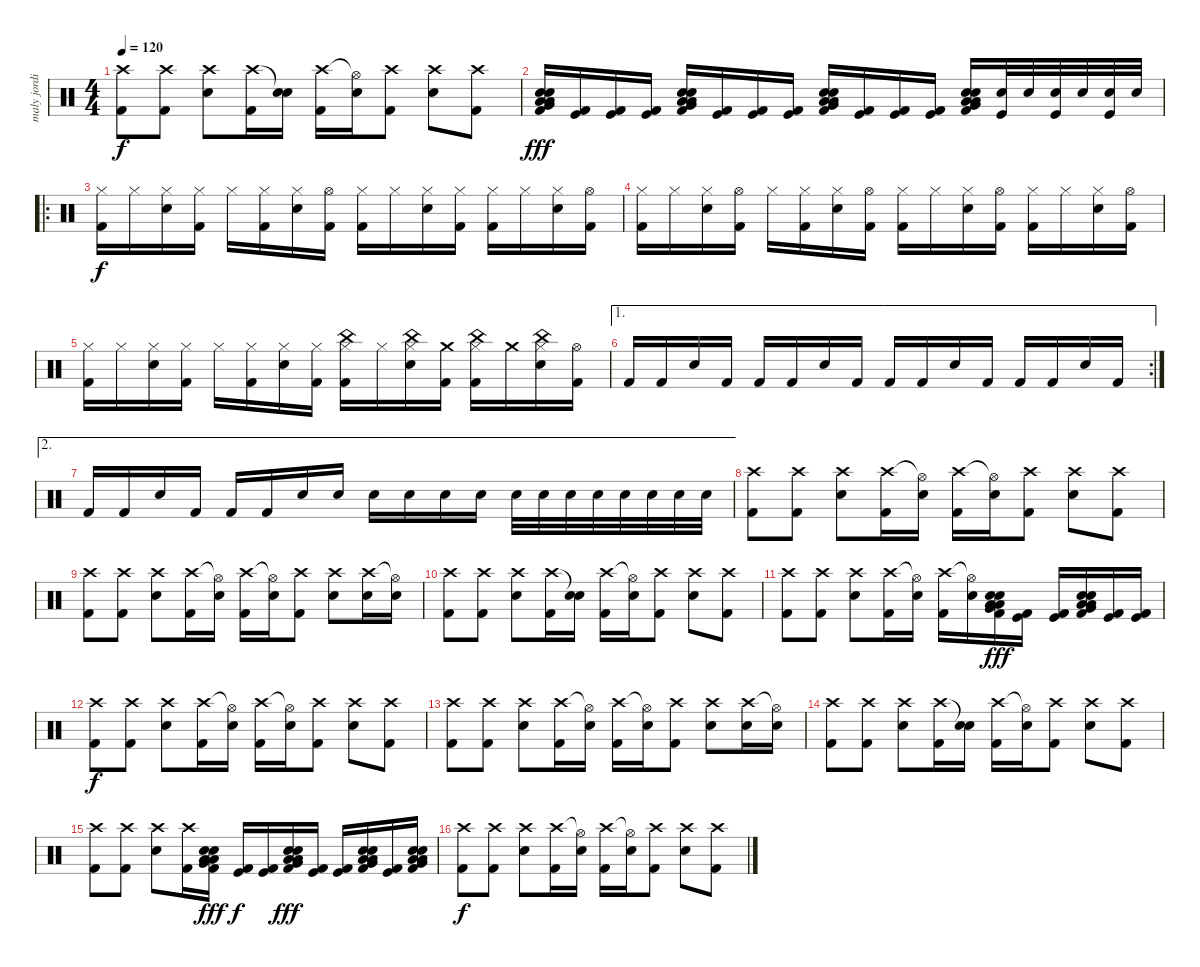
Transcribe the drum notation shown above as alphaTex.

\track ("maly jordison" "maly jordi") {instrument percussion}
\staff {score}
\articulation defaults
\ts (4 4)
\tempo 120
\clef neutral
\ks c
("Crash high (hit)" "Kick (hit) 2").8{dy f} ("Crash high (hit)" "Kick (hit) 2").8 ("Crash high (hit)" "Electric Snare (hit)").8 ("Crash high (hit)" "Kick (hit) 2").16 ("Snare (hit)"{t} "Electric Snare (hit)").16 ("Crash high (hit)" "Kick (hit) 2").16 ("Hi-Hat (open)"{t} "Electric Snare (hit)").16 ("Crash high (hit)" "Kick (hit) 2").8 ("Crash high (hit)" "Electric Snare (hit)").8 ("Crash high (hit)" "Kick (hit) 2").8 |
("Kick (hit) 2" "Very Low Tom (hit)" "Low Floor Tom (hit)" "Low Floor Tom (hit)" "Electric Snare (hit)" "Electric Snare (hit)").16{dy fff} ("Kick (hit)" "Kick (hit) 2").16 ("Kick (hit)" "Kick (hit) 2").16 ("Kick (hit)" "Kick (hit) 2").16 ("Kick (hit) 2" "Very Low Tom (hit)" "Low Floor Tom (hit)" "Low Floor Tom (hit)" "Electric Snare (hit)" "Electric Snare (hit)").16 ("Kick (hit)" "Kick (hit) 2").16 ("Kick (hit)" "Kick (hit) 2").16 ("Kick (hit)" "Kick (hit) 2").16 ("Kick (hit) 2" "Very Low Tom (hit)" "Low Floor Tom (hit)" "Low Floor Tom (hit)" "Electric Snare (hit)" "Electric Snare (hit)").16 ("Kick (hit)" "Kick (hit) 2").16 ("Kick (hit)" "Kick (hit) 2").16 ("Kick (hit)" "Kick (hit) 2").16 ("Kick (hit) 2" "Very Low Tom (hit)" "Low Floor Tom (hit)" "Low Floor Tom (hit)" "Electric Snare (hit)" "Electric Snare (hit)").16 ("Kick (hit)" "Electric Snare (hit)").32 "Electric Snare (hit)".32 ("Kick (hit)" "Electric Snare (hit)").32 "Electric Snare (hit)".32 ("Kick (hit)" "Electric Snare (hit)").32 "Electric Snare (hit)".32 |
\ro
("Hi-Hat (closed)" "Kick (hit) 2").16{dy f} "Hi-Hat (closed)".16 ("Hi-Hat (closed)" "Electric Snare (hit)").16 ("Hi-Hat (closed)" "Kick (hit) 2").16 "Hi-Hat (closed)".16 ("Hi-Hat (closed)" "Kick (hit) 2").16 ("Hi-Hat (closed)" "Electric Snare (hit)").16 ("Hi-Hat (open)" "Kick (hit) 2").16 ("Hi-Hat (closed)" "Kick (hit) 2").16 "Hi-Hat (closed)".16 ("Hi-Hat (closed)" "Electric Snare (hit)").16 ("Hi-Hat (closed)" "Kick (hit) 2").16 ("Hi-Hat (closed)" "Kick (hit) 2").16 "Hi-Hat (closed)".16 ("Hi-Hat (closed)" "Electric Snare (hit)").16 ("Hi-Hat (open)" "Kick (hit) 2").16 |
("Hi-Hat (closed)" "Kick (hit) 2").16 "Hi-Hat (closed)".16 ("Hi-Hat (closed)" "Electric Snare (hit)").16 ("Hi-Hat (open)" "Kick (hit) 2").16 "Hi-Hat (closed)".16 ("Hi-Hat (closed)" "Kick (hit) 2").16 ("Hi-Hat (closed)" "Electric Snare (hit)").16 ("Hi-Hat (open)" "Kick (hit) 2").16 ("Hi-Hat (closed)" "Kick (hit) 2").16 "Hi-Hat (closed)".16 ("Hi-Hat (closed)" "Electric Snare (hit)").16 ("Hi-Hat (open)" "Kick (hit) 2").16 ("Hi-Hat (closed)" "Kick (hit) 2").16 "Hi-Hat (closed)".16 ("Hi-Hat (closed)" "Electric Snare (hit)").16 ("Hi-Hat (open)" "Kick (hit) 2").16 |
("Hi-Hat (closed)" "Kick (hit) 2").16 "Hi-Hat (closed)".16 ("Hi-Hat (closed)" "Electric Snare (hit)").16 ("Hi-Hat (closed)" "Kick (hit) 2").16 "Hi-Hat (closed)".16 ("Hi-Hat (closed)" "Kick (hit) 2").16 ("Hi-Hat (closed)" "Electric Snare (hit)").16 ("Hi-Hat (closed)" "Kick (hit) 2").16 ("Hi-Hat (closed)" "China (hit)" "Kick (hit) 2").16 "Hi-Hat (closed)".16 ("Hi-Hat (closed)" "China (hit)" "Electric Snare (hit)").16 ("Crash medium (hit)" "Kick (hit) 2").16 ("Hi-Hat (closed)" "China (hit)" "Kick (hit) 2").16 "Crash medium (hit)".16 ("Hi-Hat (closed)" "China (hit)" "Electric Snare (hit)").16 ("Hi-Hat (open)" "Kick (hit) 2").16 |
\ae 1
\rc 2 "Kick (hit) 2".16 "Kick (hit) 2".16 "Electric Snare (hit)".16 "Kick (hit) 2".16 "Kick (hit) 2".16 "Kick (hit) 2".16 "Electric Snare (hit)".16 "Kick (hit) 2".16 "Kick (hit) 2".16 "Kick (hit) 2".16 "Electric Snare (hit)".16 "Kick (hit) 2".16 "Kick (hit) 2".16 "Kick (hit) 2".16 "Electric Snare (hit)".16 "Kick (hit) 2".16
|
\ae 2 "Kick (hit) 2".16 "Kick (hit) 2".16 "Electric Snare (hit)".16 "Kick (hit) 2".16 "Kick (hit) 2".16 "Kick (hit) 2".16 "Electric Snare (hit)".16 "Electric Snare (hit)".16 "Electric Snare (hit)".16 "Electric Snare (hit)".16 "Electric Snare (hit)".16 "Electric Snare (hit)".16 "Electric Snare (hit)".32 "Electric Snare (hit)".32 "Electric Snare (hit)".32 "Electric Snare (hit)".32 "Electric Snare (hit)".32 "Electric Snare (hit)".32 "Electric Snare (hit)".32 "Electric Snare (hit)".32
|
("Crash high (hit)" "Kick (hit) 2").8 ("Crash high (hit)" "Kick (hit) 2").8 ("Crash high (hit)" "Electric Snare (hit)").8 ("Crash high (hit)" "Kick (hit) 2").16 ("Hi-Hat (open)"{t} "Electric Snare (hit)").16 ("Crash high (hit)" "Kick (hit) 2").16 ("Hi-Hat (open)"{t} "Electric Snare (hit)").16 ("Crash high (hit)" "Kick (hit) 2").8 ("Crash high (hit)" "Electric Snare (hit)").8 ("Crash high (hit)" "Kick (hit) 2").8 |
("Crash high (hit)" "Kick (hit) 2").8 ("Crash high (hit)" "Kick (hit) 2").8 ("Crash high (hit)" "Electric Snare (hit)").8 ("Crash high (hit)" "Kick (hit) 2").16 ("Hi-Hat (open)"{t} "Electric Snare (hit)").16 ("Crash high (hit)" "Kick (hit) 2").16 ("Hi-Hat (open)"{t} "Electric Snare (hit)").16 ("Crash high (hit)" "Kick (hit) 2").8 ("Crash high (hit)" "Electric Snare (hit)").8 ("Crash high (hit)" "Electric Snare (hit)").16 ("Hi-Hat (open)"{t} "Electric Snare (hit)").16 |
("Crash high (hit)" "Kick (hit) 2").8 ("Crash high (hit)" "Kick (hit) 2").8 ("Crash high (hit)" "Electric Snare (hit)").8 ("Crash high (hit)" "Kick (hit) 2").16 ("Snare (hit)"{t} "Electric Snare (hit)").16 ("Crash high (hit)" "Kick (hit) 2").16 ("Hi-Hat (open)"{t} "Electric Snare (hit)").16 ("Crash high (hit)" "Kick (hit) 2").8 ("Crash high (hit)" "Electric Snare (hit)").8 ("Crash high (hit)" "Kick (hit) 2").8 |
("Crash high (hit)" "Kick (hit) 2").8 ("Crash high (hit)" "Kick (hit) 2").8 ("Crash high (hit)" "Electric Snare (hit)").8 ("Crash high (hit)" "Kick (hit) 2").16 ("Hi-Hat (open)"{t} "Electric Snare (hit)").16 ("Crash high (hit)" "Kick (hit) 2").16 ("Hi-Hat (open)"{t} "Electric Snare (hit)").16 ("Kick (hit) 2" "Very Low Tom (hit)" "Low Floor Tom (hit)" "Low Floor Tom (hit)" "Electric Snare (hit)" "Electric Snare (hit)").16{dy fff} ("Kick (hit)" "Kick (hit) 2").16 ("Kick (hit)" "Kick (hit) 2").16 ("Kick (hit) 2" "Very Low Tom (hit)" "Low Floor Tom (hit)" "Low Floor Tom (hit)" "Electric Snare (hit)" "Electric Snare (hit)").16 ("Kick (hit)" "Kick (hit) 2").16 ("Kick (hit)" "Kick (hit) 2").16 |
("Crash high (hit)" "Kick (hit) 2").8{dy f} ("Crash high (hit)" "Kick (hit) 2").8 ("Crash high (hit)" "Electric Snare (hit)").8 ("Crash high (hit)" "Kick (hit) 2").16 ("Hi-Hat (open)"{t} "Electric Snare (hit)").16 ("Crash high (hit)" "Kick (hit) 2").16 ("Hi-Hat (open)"{t} "Electric Snare (hit)").16 ("Crash high (hit)" "Kick (hit) 2").8 ("Crash high (hit)" "Electric Snare (hit)").8 ("Crash high (hit)" "Kick (hit) 2").8 |
("Crash high (hit)" "Kick (hit) 2").8 ("Crash high (hit)" "Kick (hit) 2").8 ("Crash high (hit)" "Electric Snare (hit)").8 ("Crash high (hit)" "Kick (hit) 2").16 ("Hi-Hat (open)"{t} "Electric Snare (hit)").16 ("Crash high (hit)" "Kick (hit) 2").16 ("Hi-Hat (open)"{t} "Electric Snare (hit)").16 ("Crash high (hit)" "Kick (hit) 2").8 ("Crash high (hit)" "Electric Snare (hit)").8 ("Crash high (hit)" "Electric Snare (hit)").16 ("Hi-Hat (open)"{t} "Electric Snare (hit)").16 |
("Crash high (hit)" "Kick (hit) 2").8 ("Crash high (hit)" "Kick (hit) 2").8 ("Crash high (hit)" "Electric Snare (hit)").8 ("Crash high (hit)" "Kick (hit) 2").16 ("Snare (hit)"{t} "Electric Snare (hit)").16 ("Crash high (hit)" "Kick (hit) 2").16 ("Hi-Hat (open)"{t} "Electric Snare (hit)").16 ("Crash high (hit)" "Kick (hit) 2").8 ("Crash high (hit)" "Electric Snare (hit)").8 ("Crash high (hit)" "Kick (hit) 2").8 |
("Crash high (hit)" "Kick (hit) 2").8 ("Crash high (hit)" "Kick (hit) 2").8 ("Crash high (hit)" "Electric Snare (hit)").8 ("Crash high (hit)" "Kick (hit) 2").16 ("Kick (hit) 2" "Very Low Tom (hit)" "Low Floor Tom (hit)" "Low Floor Tom (hit)" "Electric Snare (hit)" "Electric Snare (hit)").16{dy fff} ("Kick (hit)" "Kick (hit) 2").16{dy f} ("Kick (hit)" "Kick (hit) 2").16 ("Kick (hit) 2" "Very Low Tom (hit)" "Low Floor Tom (hit)" "Low Floor Tom (hit)" "Electric Snare (hit)" "Electric Snare (hit)").16{dy fff} ("Kick (hit)" "Kick (hit) 2").16 ("Kick (hit)" "Kick (hit) 2").16 ("Kick (hit) 2" "Very Low Tom (hit)" "Low Floor Tom (hit)" "Low Floor Tom (hit)" "Electric Snare (hit)" "Electric Snare (hit)").16 ("Kick (hit)" "Kick (hit) 2").16 ("Kick (hit) 2" "Very Low Tom (hit)" "Low Floor Tom (hit)" "Low Floor Tom (hit)" "Electric Snare (hit)" "Electric Snare (hit)").16 |
("Crash high (hit)" "Kick (hit) 2").8{dy f} ("Crash high (hit)" "Kick (hit) 2").8 ("Crash high (hit)" "Electric Snare (hit)").8 ("Crash high (hit)" "Kick (hit) 2").16 ("Hi-Hat (open)"{t} "Electric Snare (hit)").16 ("Crash high (hit)" "Kick (hit) 2").16 ("Hi-Hat (open)"{t} "Electric Snare (hit)").16 ("Crash high (hit)" "Kick (hit) 2").8 ("Crash high (hit)" "Electric Snare (hit)").8 ("Crash high (hit)" "Kick (hit) 2").8
